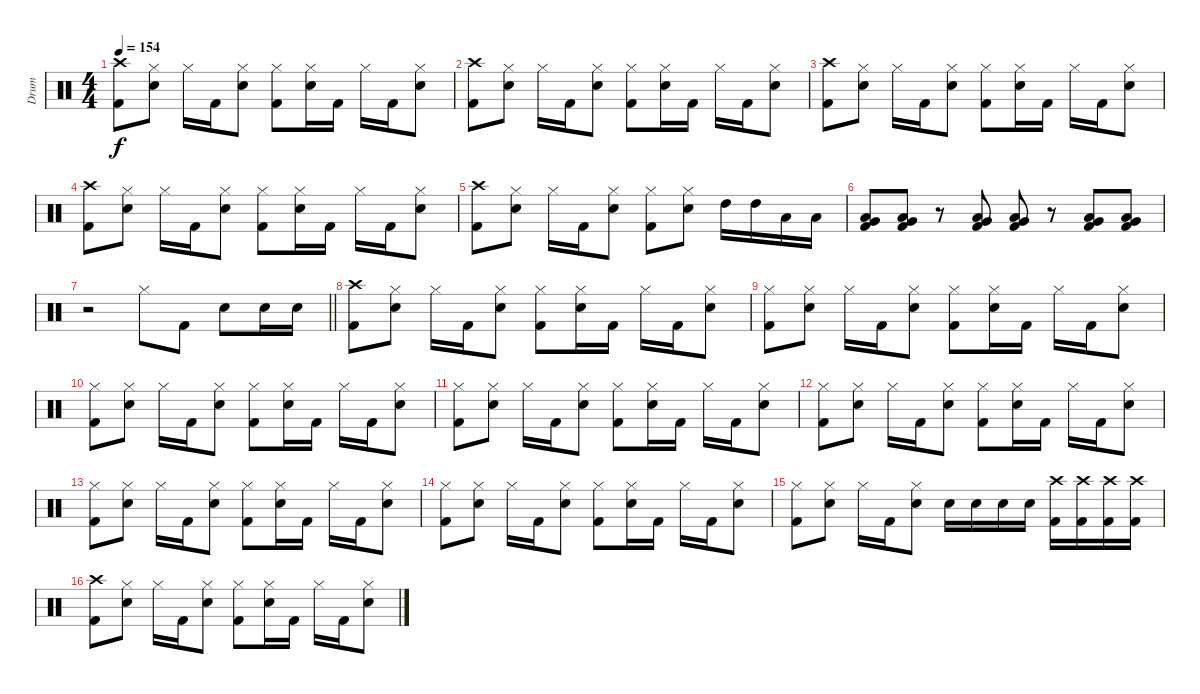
\track ("Drum" "Drum") {instrument percussion}
\staff {score}
\articulation defaults
\ts (4 4)
\tempo 154
\clef neutral
\ks c
("Crash high (hit)" "Kick (hit) 2").8{dy f} ("Hi-Hat (closed)" "Snare (hit) 2").8 "Hi-Hat (closed)".16 "Kick (hit) 2".16 ("Hi-Hat (closed)" "Snare (hit) 2").8 ("Hi-Hat (closed)" "Kick (hit) 2").8 ("Hi-Hat (closed)" "Snare (hit) 2").16 "Kick (hit) 2".16 "Hi-Hat (closed)".16 "Kick (hit) 2".16 ("Hi-Hat (closed)" "Snare (hit) 2").8 |
("Crash high (hit)" "Kick (hit) 2").8 ("Hi-Hat (closed)" "Snare (hit) 2").8 "Hi-Hat (closed)".16 "Kick (hit) 2".16 ("Hi-Hat (closed)" "Snare (hit) 2").8 ("Hi-Hat (closed)" "Kick (hit) 2").8 ("Hi-Hat (closed)" "Snare (hit) 2").16 "Kick (hit) 2".16 "Hi-Hat (closed)".16 "Kick (hit) 2".16 ("Hi-Hat (closed)" "Snare (hit) 2").8 |
("Crash high (hit)" "Kick (hit) 2").8 ("Hi-Hat (closed)" "Snare (hit) 2").8 "Hi-Hat (closed)".16 "Kick (hit) 2".16 ("Hi-Hat (closed)" "Snare (hit) 2").8 ("Hi-Hat (closed)" "Kick (hit) 2").8 ("Hi-Hat (closed)" "Snare (hit) 2").16 "Kick (hit) 2".16 "Hi-Hat (closed)".16 "Kick (hit) 2".16 ("Hi-Hat (closed)" "Snare (hit) 2").8 |
("Crash high (hit)" "Kick (hit) 2").8 ("Hi-Hat (closed)" "Snare (hit) 2").8 "Hi-Hat (closed)".16 "Kick (hit) 2".16 ("Hi-Hat (closed)" "Snare (hit) 2").8 ("Hi-Hat (closed)" "Kick (hit) 2").8 ("Hi-Hat (closed)" "Snare (hit) 2").16 "Kick (hit) 2".16 "Hi-Hat (closed)".16 "Kick (hit) 2".16 ("Hi-Hat (closed)" "Snare (hit) 2").8 |
("Crash high (hit)" "Kick (hit) 2").8 ("Hi-Hat (closed)" "Snare (hit) 2").8 "Hi-Hat (closed)".16 "Kick (hit) 2".16 ("Hi-Hat (closed)" "Snare (hit) 2").8 ("Hi-Hat (closed)" "Kick (hit) 2").8 ("Hi-Hat (closed)" "Snare (hit) 2").8 "High Tom (hit)".16 "High Tom (hit)".16 "Low Tom (hit)".16 "Low Tom (hit)".16 |
("Very Low Tom (hit)" "Low Floor Tom (hit)" "Kick (hit) 2").8 ("Very Low Tom (hit)" "Low Floor Tom (hit)" "Kick (hit) 2").8 r.8 ("Very Low Tom (hit)" "Low Floor Tom (hit)" "Kick (hit) 2").8 ("Very Low Tom (hit)" "Low Floor Tom (hit)" "Kick (hit) 2").8 r.8 ("Very Low Tom (hit)" "Low Floor Tom (hit)" "Kick (hit) 2").8 ("Very Low Tom (hit)" "Low Floor Tom (hit)" "Kick (hit) 2").8 |
\barLineRight lightlight
r.2 "Hi-Hat (closed)".8 "Kick (hit) 2".8 "Snare (hit) 2".8 "Snare (hit) 2".16 "Snare (hit) 2".16 |
("Crash high (hit)" "Kick (hit) 2").8 ("Hi-Hat (closed)" "Snare (hit) 2").8 "Hi-Hat (closed)".16 "Kick (hit) 2".16 ("Hi-Hat (closed)" "Snare (hit) 2").8 ("Hi-Hat (closed)" "Kick (hit) 2").8 ("Hi-Hat (closed)" "Snare (hit) 2").16 "Kick (hit) 2".16 "Hi-Hat (closed)".16 "Kick (hit) 2".16 ("Hi-Hat (closed)" "Snare (hit) 2").8 |
("Hi-Hat (closed)" "Kick (hit) 2").8 ("Hi-Hat (closed)" "Snare (hit) 2").8 "Hi-Hat (closed)".16 "Kick (hit) 2".16 ("Hi-Hat (closed)" "Snare (hit) 2").8 ("Hi-Hat (closed)" "Kick (hit) 2").8 ("Hi-Hat (closed)" "Snare (hit) 2").16 "Kick (hit) 2".16 "Hi-Hat (closed)".16 "Kick (hit) 2".16 ("Hi-Hat (closed)" "Snare (hit) 2").8 |
("Hi-Hat (closed)" "Kick (hit) 2").8 ("Hi-Hat (closed)" "Snare (hit) 2").8 "Hi-Hat (closed)".16 "Kick (hit) 2".16 ("Hi-Hat (closed)" "Snare (hit) 2").8 ("Hi-Hat (closed)" "Kick (hit) 2").8 ("Hi-Hat (closed)" "Snare (hit) 2").16 "Kick (hit) 2".16 "Hi-Hat (closed)".16 "Kick (hit) 2".16 ("Hi-Hat (closed)" "Snare (hit) 2").8 |
("Hi-Hat (closed)" "Kick (hit) 2").8 ("Hi-Hat (closed)" "Snare (hit) 2").8 "Hi-Hat (closed)".16 "Kick (hit) 2".16 ("Hi-Hat (closed)" "Snare (hit) 2").8 ("Hi-Hat (closed)" "Kick (hit) 2").8 ("Hi-Hat (closed)" "Snare (hit) 2").16 "Kick (hit) 2".16 "Hi-Hat (closed)".16 "Kick (hit) 2".16 ("Hi-Hat (closed)" "Snare (hit) 2").8 |
("Hi-Hat (closed)" "Kick (hit) 2").8 ("Hi-Hat (closed)" "Snare (hit) 2").8 "Hi-Hat (closed)".16 "Kick (hit) 2".16 ("Hi-Hat (closed)" "Snare (hit) 2").8 ("Hi-Hat (closed)" "Kick (hit) 2").8 ("Hi-Hat (closed)" "Snare (hit) 2").16 "Kick (hit) 2".16 "Hi-Hat (closed)".16 "Kick (hit) 2".16 ("Hi-Hat (closed)" "Snare (hit) 2").8 |
("Hi-Hat (closed)" "Kick (hit) 2").8 ("Hi-Hat (closed)" "Snare (hit) 2").8 "Hi-Hat (closed)".16 "Kick (hit) 2".16 ("Hi-Hat (closed)" "Snare (hit) 2").8 ("Hi-Hat (closed)" "Kick (hit) 2").8 ("Hi-Hat (closed)" "Snare (hit) 2").16 "Kick (hit) 2".16 "Hi-Hat (closed)".16 "Kick (hit) 2".16 ("Hi-Hat (closed)" "Snare (hit) 2").8 |
("Hi-Hat (closed)" "Kick (hit) 2").8 ("Hi-Hat (closed)" "Snare (hit) 2").8 "Hi-Hat (closed)".16 "Kick (hit) 2".16 ("Hi-Hat (closed)" "Snare (hit) 2").8 ("Hi-Hat (closed)" "Kick (hit) 2").8 ("Hi-Hat (closed)" "Snare (hit) 2").16 "Kick (hit) 2".16 "Hi-Hat (closed)".16 "Kick (hit) 2".16 ("Hi-Hat (closed)" "Snare (hit) 2").8 |
("Hi-Hat (closed)" "Kick (hit) 2").8 ("Hi-Hat (closed)" "Snare (hit) 2").8 "Hi-Hat (closed)".16 "Kick (hit) 2".16 ("Hi-Hat (closed)" "Snare (hit) 2").8 "Snare (hit) 2".16 "Snare (hit) 2".16 "Snare (hit) 2".16 "Snare (hit) 2".16 ("Crash high (hit)" "Kick (hit) 2").16 ("Crash high (hit)" "Kick (hit) 2").16 ("Crash high (hit)" "Kick (hit) 2").16 ("Crash high (hit)" "Kick (hit) 2").16 |
("Crash high (hit)" "Kick (hit) 2").8 ("Hi-Hat (closed)" "Snare (hit) 2").8 "Hi-Hat (closed)".16 "Kick (hit) 2".16 ("Hi-Hat (closed)" "Snare (hit) 2").8 ("Hi-Hat (closed)" "Kick (hit) 2").8 ("Hi-Hat (closed)" "Snare (hit) 2").16 "Kick (hit) 2".16 "Hi-Hat (closed)".16 "Kick (hit) 2".16 ("Hi-Hat (closed)" "Snare (hit) 2").8
